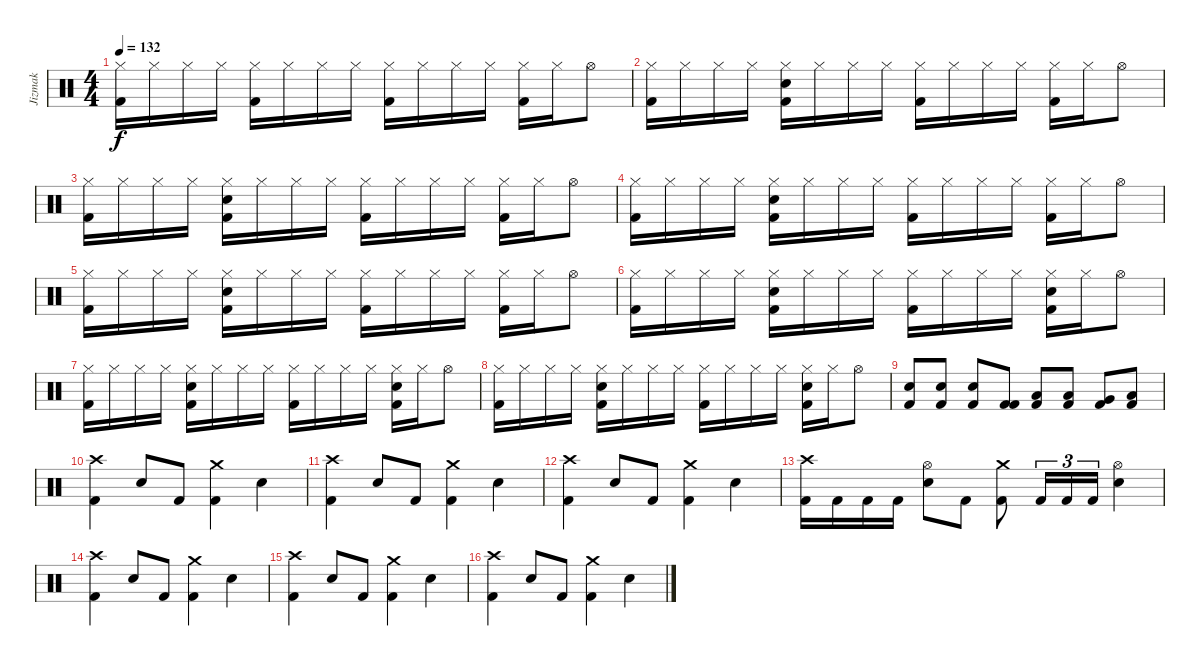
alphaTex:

\track ("Jizmak" "Jizmak") {instrument percussion}
\staff {score}
\articulation defaults
\ts (4 4)
\tempo 132
\clef neutral
\ks c
("Hi-Hat (closed)" "Kick (hit) 2").16{dy f} "Hi-Hat (closed)".16 "Hi-Hat (closed)".16 "Hi-Hat (closed)".16 ("Hi-Hat (closed)" "Kick (hit) 2").16 "Hi-Hat (closed)".16 "Hi-Hat (closed)".16 "Hi-Hat (closed)".16 ("Hi-Hat (closed)" "Kick (hit) 2").16 "Hi-Hat (closed)".16 "Hi-Hat (closed)".16 "Hi-Hat (closed)".16 ("Hi-Hat (closed)" "Kick (hit) 2").16 "Hi-Hat (closed)".16 "Hi-Hat (open)".8 |
("Hi-Hat (closed)" "Kick (hit) 2").16 "Hi-Hat (closed)".16 "Hi-Hat (closed)".16 "Hi-Hat (closed)".16 ("Hi-Hat (closed)" "Kick (hit) 2" "Snare (hit) 2").16 "Hi-Hat (closed)".16 "Hi-Hat (closed)".16 "Hi-Hat (closed)".16 ("Hi-Hat (closed)" "Kick (hit) 2").16 "Hi-Hat (closed)".16 "Hi-Hat (closed)".16 "Hi-Hat (closed)".16 ("Hi-Hat (closed)" "Kick (hit) 2").16 "Hi-Hat (closed)".16 "Hi-Hat (open)".8 |
("Hi-Hat (closed)" "Kick (hit) 2").16 "Hi-Hat (closed)".16 "Hi-Hat (closed)".16 "Hi-Hat (closed)".16 ("Hi-Hat (closed)" "Kick (hit) 2" "Snare (hit) 2").16 "Hi-Hat (closed)".16 "Hi-Hat (closed)".16 "Hi-Hat (closed)".16 ("Hi-Hat (closed)" "Kick (hit) 2").16 "Hi-Hat (closed)".16 "Hi-Hat (closed)".16 "Hi-Hat (closed)".16 ("Hi-Hat (closed)" "Kick (hit) 2").16 "Hi-Hat (closed)".16 "Hi-Hat (open)".8 |
("Hi-Hat (closed)" "Kick (hit) 2").16 "Hi-Hat (closed)".16 "Hi-Hat (closed)".16 "Hi-Hat (closed)".16 ("Hi-Hat (closed)" "Kick (hit) 2" "Snare (hit) 2").16 "Hi-Hat (closed)".16 "Hi-Hat (closed)".16 "Hi-Hat (closed)".16 ("Hi-Hat (closed)" "Kick (hit) 2").16 "Hi-Hat (closed)".16 "Hi-Hat (closed)".16 "Hi-Hat (closed)".16 ("Hi-Hat (closed)" "Kick (hit) 2").16 "Hi-Hat (closed)".16 "Hi-Hat (open)".8 |
("Hi-Hat (closed)" "Kick (hit) 2").16 "Hi-Hat (closed)".16 "Hi-Hat (closed)".16 "Hi-Hat (closed)".16 ("Hi-Hat (closed)" "Kick (hit) 2" "Snare (hit) 2").16 "Hi-Hat (closed)".16 "Hi-Hat (closed)".16 "Hi-Hat (closed)".16 ("Hi-Hat (closed)" "Kick (hit) 2").16 "Hi-Hat (closed)".16 "Hi-Hat (closed)".16 "Hi-Hat (closed)".16 ("Hi-Hat (closed)" "Kick (hit) 2").16 "Hi-Hat (closed)".16 "Hi-Hat (open)".8 |
("Hi-Hat (closed)" "Kick (hit) 2").16 "Hi-Hat (closed)".16 "Hi-Hat (closed)".16 "Hi-Hat (closed)".16 ("Hi-Hat (closed)" "Kick (hit) 2" "Snare (hit) 2").16 "Hi-Hat (closed)".16 "Hi-Hat (closed)".16 "Hi-Hat (closed)".16 ("Hi-Hat (closed)" "Kick (hit) 2").16 "Hi-Hat (closed)".16 "Hi-Hat (closed)".16 "Hi-Hat (closed)".16 ("Hi-Hat (closed)" "Kick (hit) 2" "Snare (hit) 2").16 "Hi-Hat (closed)".16 "Hi-Hat (open)".8 |
("Hi-Hat (closed)" "Kick (hit) 2").16 "Hi-Hat (closed)".16 "Hi-Hat (closed)".16 "Hi-Hat (closed)".16 ("Hi-Hat (closed)" "Kick (hit) 2" "Snare (hit) 2").16 "Hi-Hat (closed)".16 "Hi-Hat (closed)".16 "Hi-Hat (closed)".16 ("Hi-Hat (closed)" "Kick (hit) 2").16 "Hi-Hat (closed)".16 "Hi-Hat (closed)".16 "Hi-Hat (closed)".16 ("Hi-Hat (closed)" "Kick (hit) 2" "Snare (hit) 2").16 "Hi-Hat (closed)".16 "Hi-Hat (open)".8 |
("Hi-Hat (closed)" "Kick (hit) 2").16 "Hi-Hat (closed)".16 "Hi-Hat (closed)".16 "Hi-Hat (closed)".16 ("Hi-Hat (closed)" "Kick (hit) 2" "Snare (hit) 2").16 "Hi-Hat (closed)".16 "Hi-Hat (closed)".16 "Hi-Hat (closed)".16 ("Hi-Hat (closed)" "Kick (hit) 2").16 "Hi-Hat (closed)".16 "Hi-Hat (closed)".16 "Hi-Hat (closed)".16 ("Hi-Hat (closed)" "Kick (hit) 2" "Snare (hit) 2").16 "Hi-Hat (closed)".16 "Hi-Hat (open)".8 |
("Kick (hit) 2" "Snare (hit) 2").8 ("Kick (hit) 2" "Snare (hit) 2").8 ("Kick (hit) 2" "Snare (hit) 2").8 ("Kick (hit) 2" "Kick (hit) 2").8 ("Kick (hit) 2" "Low Tom (hit)").8 ("Kick (hit) 2" "Low Tom (hit)").8 ("Kick (hit) 2" "Very Low Tom (hit)").8 ("Kick (hit) 2" "Low Floor Tom (hit)").8 |
("Crash high (hit)" "Kick (hit) 2").4 "Snare (hit) 2".8 "Kick (hit) 2".8 ("Crash medium (hit)" "Kick (hit) 2").4 "Snare (hit) 2".4 |
("Crash high (hit)" "Kick (hit) 2").4 "Snare (hit) 2".8 "Kick (hit) 2".8 ("Crash medium (hit)" "Kick (hit) 2").4 "Snare (hit) 2".4 |
("Crash high (hit)" "Kick (hit) 2").4 "Snare (hit) 2".8 "Kick (hit) 2".8 ("Crash medium (hit)" "Kick (hit) 2").4 "Snare (hit) 2".4 |
("Crash high (hit)" "Kick (hit) 2").16 "Kick (hit) 2".16 "Kick (hit) 2".16 "Kick (hit) 2".16 ("Hi-Hat (open)" "Snare (hit) 2").8 "Kick (hit) 2".8 ("Crash medium (hit)" "Kick (hit) 2").8 "Kick (hit) 2".16{tu (3 2)} "Kick (hit) 2".16{tu (3 2)} "Kick (hit) 2".16{tu (3 2)} ("Hi-Hat (open)" "Snare (hit) 2").4 |
("Crash high (hit)" "Kick (hit) 2").4 "Snare (hit) 2".8 "Kick (hit) 2".8 ("Crash medium (hit)" "Kick (hit) 2").4 "Snare (hit) 2".4 |
("Crash high (hit)" "Kick (hit) 2").4 "Snare (hit) 2".8 "Kick (hit) 2".8 ("Crash medium (hit)" "Kick (hit) 2").4 "Snare (hit) 2".4 |
("Crash high (hit)" "Kick (hit) 2").4 "Snare (hit) 2".8 "Kick (hit) 2".8 ("Crash medium (hit)" "Kick (hit) 2").4 "Snare (hit) 2".4
